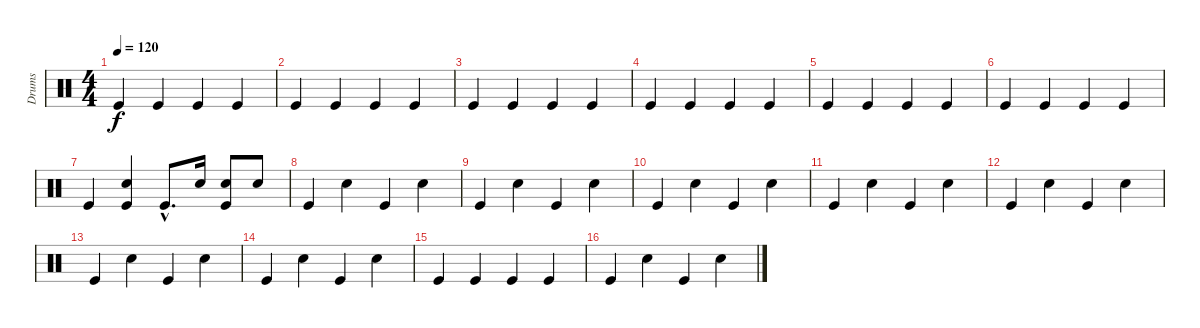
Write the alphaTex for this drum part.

\track ("Drums" "Drums") {instrument percussion}
\staff {score}
\articulation defaults
\ts (4 4)
\tempo 120
\clef neutral
\ks c "Kick (hit)".4{dy f} "Kick (hit)".4 "Kick (hit)".4 "Kick (hit)".4
|
"Kick (hit)".4 "Kick (hit)".4 "Kick (hit)".4 "Kick (hit)".4 |
"Kick (hit)".4 "Kick (hit)".4 "Kick (hit)".4 "Kick (hit)".4 |
"Kick (hit)".4 "Kick (hit)".4 "Kick (hit)".4 "Kick (hit)".4 |
"Kick (hit)".4 "Kick (hit)".4 "Kick (hit)".4 "Kick (hit)".4 |
"Kick (hit)".4 "Kick (hit)".4 "Kick (hit)".4 "Kick (hit)".4 |
"Kick (hit)".4 ("Snare (hit) 2" "Kick (hit)").4 "Kick (hit)"{hac}.8{d} "Snare (hit) 2".16 ("Snare (hit) 2" "Kick (hit)").8 "Snare (hit) 2".8 |
"Kick (hit)".4 "Snare (hit) 2".4 "Kick (hit)".4 "Snare (hit) 2".4 |
"Kick (hit)".4 "Snare (hit) 2".4 "Kick (hit)".4 "Snare (hit) 2".4 |
"Kick (hit)".4 "Snare (hit) 2".4 "Kick (hit)".4 "Snare (hit) 2".4 |
"Kick (hit)".4 "Snare (hit) 2".4 "Kick (hit)".4 "Snare (hit) 2".4 |
"Kick (hit)".4 "Snare (hit) 2".4 "Kick (hit)".4 "Snare (hit) 2".4 |
"Kick (hit)".4 "Snare (hit) 2".4 "Kick (hit)".4 "Snare (hit) 2".4 |
"Kick (hit)".4 "Snare (hit) 2".4 "Kick (hit)".4 "Snare (hit) 2".4 |
"Kick (hit)".4 "Kick (hit)".4 "Kick (hit)".4 "Kick (hit)".4 |
"Kick (hit)".4 "Snare (hit) 2".4 "Kick (hit)".4 "Snare (hit) 2".4
